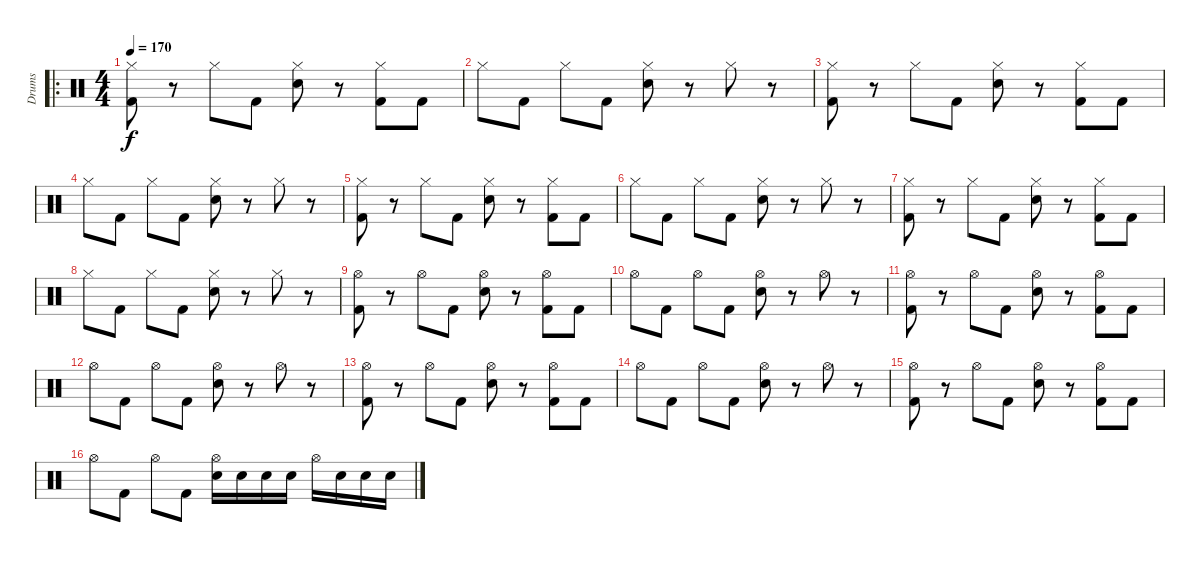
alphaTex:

\track ("Drums" "Drums") {instrument percussion}
\staff {score}
\articulation defaults
\ro
\ts (4 4)
\tempo 170
\clef neutral
\ks c
("Hi-Hat (closed)" "Kick (hit) 2").8{dy f} r.8 "Hi-Hat (closed)".8 "Kick (hit) 2".8 ("Hi-Hat (closed)" "Snare (hit) 2").8 r.8 ("Hi-Hat (closed)" "Kick (hit) 2").8 "Kick (hit) 2".8 |
"Hi-Hat (closed)".8 "Kick (hit) 2".8 "Hi-Hat (closed)".8 "Kick (hit) 2".8 ("Hi-Hat (closed)" "Snare (hit) 2").8 r.8 "Hi-Hat (closed)".8 r.8 |
("Hi-Hat (closed)" "Kick (hit) 2").8 r.8 "Hi-Hat (closed)".8 "Kick (hit) 2".8 ("Hi-Hat (closed)" "Snare (hit) 2").8 r.8 ("Hi-Hat (closed)" "Kick (hit) 2").8 "Kick (hit) 2".8 |
"Hi-Hat (closed)".8 "Kick (hit) 2".8 "Hi-Hat (closed)".8 "Kick (hit) 2".8 ("Hi-Hat (closed)" "Snare (hit) 2").8 r.8 "Hi-Hat (closed)".8 r.8 |
("Hi-Hat (closed)" "Kick (hit) 2").8 r.8 "Hi-Hat (closed)".8 "Kick (hit) 2".8 ("Hi-Hat (closed)" "Snare (hit) 2").8 r.8 ("Hi-Hat (closed)" "Kick (hit) 2").8 "Kick (hit) 2".8 |
"Hi-Hat (closed)".8 "Kick (hit) 2".8 "Hi-Hat (closed)".8 "Kick (hit) 2".8 ("Hi-Hat (closed)" "Snare (hit) 2").8 r.8 "Hi-Hat (closed)".8 r.8 |
("Hi-Hat (closed)" "Kick (hit) 2").8 r.8 "Hi-Hat (closed)".8 "Kick (hit) 2".8 ("Hi-Hat (closed)" "Snare (hit) 2").8 r.8 ("Hi-Hat (closed)" "Kick (hit) 2").8 "Kick (hit) 2".8 |
"Hi-Hat (closed)".8 "Kick (hit) 2".8 "Hi-Hat (closed)".8 "Kick (hit) 2".8 ("Hi-Hat (closed)" "Snare (hit) 2").8 r.8 "Hi-Hat (closed)".8 r.8 |
("Hi-Hat (open)" "Kick (hit) 2").8 r.8 "Hi-Hat (open)".8 "Kick (hit) 2".8 ("Hi-Hat (open)" "Snare (hit) 2").8 r.8 ("Hi-Hat (open)" "Kick (hit) 2").8 "Kick (hit) 2".8 |
"Hi-Hat (open)".8 "Kick (hit) 2".8 "Hi-Hat (open)".8 "Kick (hit) 2".8 ("Hi-Hat (open)" "Snare (hit) 2").8 r.8 "Hi-Hat (open)".8 r.8 |
("Hi-Hat (open)" "Kick (hit) 2").8 r.8 "Hi-Hat (open)".8 "Kick (hit) 2".8 ("Hi-Hat (open)" "Snare (hit) 2").8 r.8 ("Hi-Hat (open)" "Kick (hit) 2").8 "Kick (hit) 2".8 |
"Hi-Hat (open)".8 "Kick (hit) 2".8 "Hi-Hat (open)".8 "Kick (hit) 2".8 ("Hi-Hat (open)" "Snare (hit) 2").8 r.8 "Hi-Hat (open)".8 r.8 |
("Hi-Hat (open)" "Kick (hit) 2").8 r.8 "Hi-Hat (open)".8 "Kick (hit) 2".8 ("Hi-Hat (open)" "Snare (hit) 2").8 r.8 ("Hi-Hat (open)" "Kick (hit) 2").8 "Kick (hit) 2".8 |
"Hi-Hat (open)".8 "Kick (hit) 2".8 "Hi-Hat (open)".8 "Kick (hit) 2".8 ("Hi-Hat (open)" "Snare (hit) 2").8 r.8 "Hi-Hat (open)".8 r.8 |
("Hi-Hat (open)" "Kick (hit) 2").8 r.8 "Hi-Hat (open)".8 "Kick (hit) 2".8 ("Hi-Hat (open)" "Snare (hit) 2").8 r.8 ("Hi-Hat (open)" "Kick (hit) 2").8 "Kick (hit) 2".8 |
"Hi-Hat (open)".8 "Kick (hit) 2".8 "Hi-Hat (open)".8 "Kick (hit) 2".8 ("Hi-Hat (open)" "Snare (hit) 2").16 "Snare (hit) 2".16 "Snare (hit) 2".16 "Snare (hit) 2".16 "Hi-Hat (open)".16 "Snare (hit) 2".16 "Snare (hit) 2".16 "Snare (hit) 2".16
